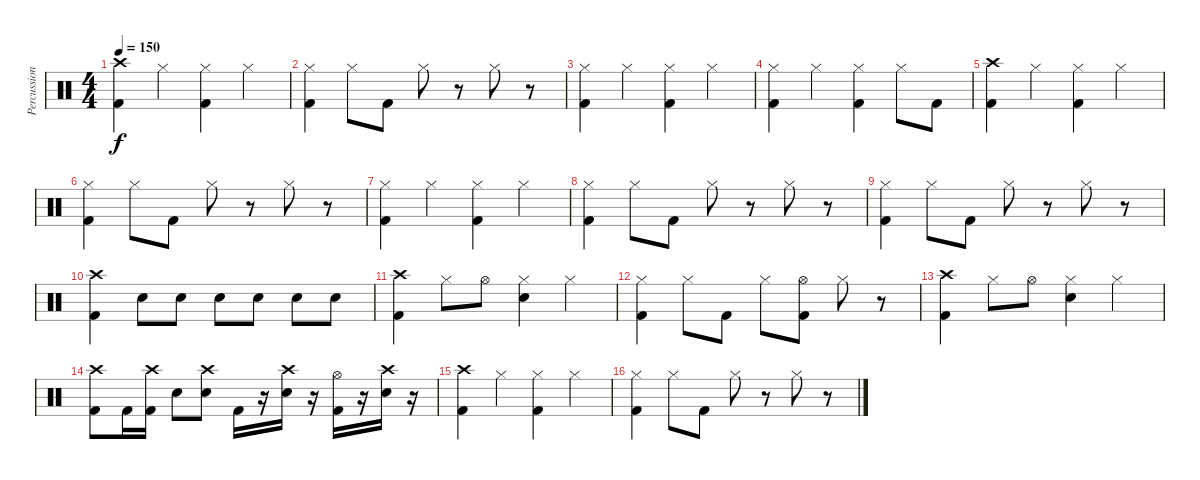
\track ("Percussion" "Percussion") {instrument percussion}
\staff {score}
\articulation defaults
\ts (4 4)
\tempo 150
\clef neutral
\ks c
("Crash high (hit)" "Kick (hit) 2").4{dy f} "Hi-Hat (closed)".4 ("Hi-Hat (closed)" "Kick (hit) 2").4 "Hi-Hat (closed)".4 |
("Hi-Hat (closed)" "Kick (hit) 2").4 "Hi-Hat (closed)".8 "Kick (hit) 2".8 "Hi-Hat (closed)".8 r.8 "Hi-Hat (closed)".8 r.8 |
("Hi-Hat (closed)" "Kick (hit) 2").4 "Hi-Hat (closed)".4 ("Hi-Hat (closed)" "Kick (hit) 2").4 "Hi-Hat (closed)".4 |
("Hi-Hat (closed)" "Kick (hit) 2").4 "Hi-Hat (closed)".4 ("Hi-Hat (closed)" "Kick (hit) 2").4 "Hi-Hat (closed)".8 "Kick (hit) 2".8 |
("Crash high (hit)" "Kick (hit) 2").4 "Hi-Hat (closed)".4 ("Hi-Hat (closed)" "Kick (hit) 2").4 "Hi-Hat (closed)".4 |
("Hi-Hat (closed)" "Kick (hit) 2").4 "Hi-Hat (closed)".8 "Kick (hit) 2".8 "Hi-Hat (closed)".8 r.8 "Hi-Hat (closed)".8 r.8 |
("Hi-Hat (closed)" "Kick (hit) 2").4 "Hi-Hat (closed)".4 ("Hi-Hat (closed)" "Kick (hit) 2").4 "Hi-Hat (closed)".4 |
("Hi-Hat (closed)" "Kick (hit) 2").4 "Hi-Hat (closed)".8 "Kick (hit) 2".8 "Hi-Hat (closed)".8 r.8 "Hi-Hat (closed)".8 r.8 |
("Hi-Hat (closed)" "Kick (hit) 2").4 "Hi-Hat (closed)".8 "Kick (hit) 2".8 "Hi-Hat (closed)".8 r.8 "Hi-Hat (closed)".8 r.8 |
("Crash high (hit)" "Kick (hit) 2").4 "Snare (hit) 2".8 "Snare (hit) 2".8 "Snare (hit) 2".8 "Snare (hit) 2".8 "Snare (hit) 2".8 "Snare (hit) 2".8 |
("Crash high (hit)" "Kick (hit) 2").4 "Hi-Hat (closed)".8 "Hi-Hat (open)".8 ("Hi-Hat (closed)" "Snare (hit) 2").4 "Hi-Hat (closed)".4 |
("Hi-Hat (closed)" "Kick (hit) 2").4 "Hi-Hat (closed)".8 "Kick (hit) 2".8 "Hi-Hat (closed)".8 ("Hi-Hat (open)" "Kick (hit) 2").8 "Hi-Hat (closed)".8 r.8 |
("Crash high (hit)" "Kick (hit) 2").4 "Hi-Hat (closed)".8 "Hi-Hat (open)".8 ("Hi-Hat (closed)" "Snare (hit) 2").4 "Hi-Hat (closed)".4 |
("Crash high (hit)" "Kick (hit) 2").8 "Kick (hit) 2".16 ("Crash high (hit)" "Kick (hit) 2").16 "Snare (hit) 2".8 ("Crash high (hit)" "Snare (hit) 2").8 "Kick (hit) 2".16 r.16 ("Crash high (hit)" "Snare (hit) 2").16 r.16 ("Hi-Hat (open)" "Kick (hit) 2").16 r.16 ("Crash high (hit)" "Snare (hit) 2").16 r.16 |
("Crash high (hit)" "Kick (hit) 2").4 "Hi-Hat (closed)".4 ("Hi-Hat (closed)" "Kick (hit) 2").4 "Hi-Hat (closed)".4 |
("Hi-Hat (closed)" "Kick (hit) 2").4 "Hi-Hat (closed)".8 "Kick (hit) 2".8 "Hi-Hat (closed)".8 r.8 "Hi-Hat (closed)".8 r.8
